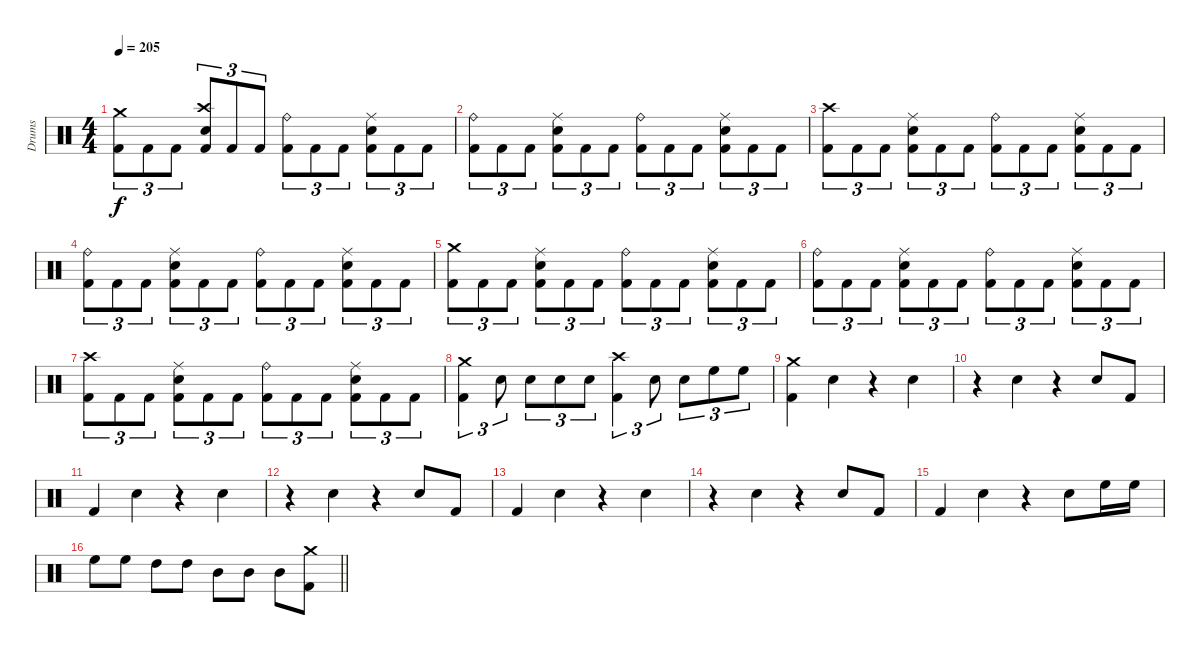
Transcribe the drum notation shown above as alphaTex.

\track ("Drums" "Drums") {instrument percussion}
\staff {score}
\articulation defaults
\ts (4 4)
\tempo 205
\clef neutral
\ks c
("Crash medium (hit)" "Kick (hit) 2").8{tu (3 2) dy f} "Kick (hit) 2".8{tu (3 2)} "Kick (hit) 2".8{tu (3 2)} ("Crash high (hit)" "Electric Snare (hit)" "Kick (hit) 2").8{tu (3 2)} "Kick (hit) 2".8{tu (3 2)} "Kick (hit) 2".8{tu (3 2)} ("Ride (bell)" "Kick (hit) 2").8{tu (3 2)} "Kick (hit) 2".8{tu (3 2)} "Kick (hit) 2".8{tu (3 2)} ("Ride (middle)" "Electric Snare (hit)" "Kick (hit) 2").8{tu (3 2)} "Kick (hit) 2".8{tu (3 2)} "Kick (hit) 2".8{tu (3 2)} |
("Ride (bell)" "Kick (hit) 2").8{tu (3 2)} "Kick (hit) 2".8{tu (3 2)} "Kick (hit) 2".8{tu (3 2)} ("Ride (middle)" "Electric Snare (hit)" "Kick (hit) 2").8{tu (3 2)} "Kick (hit) 2".8{tu (3 2)} "Kick (hit) 2".8{tu (3 2)} ("Ride (bell)" "Kick (hit) 2").8{tu (3 2)} "Kick (hit) 2".8{tu (3 2)} "Kick (hit) 2".8{tu (3 2)} ("Ride (middle)" "Electric Snare (hit)" "Kick (hit) 2").8{tu (3 2)} "Kick (hit) 2".8{tu (3 2)} "Kick (hit) 2".8{tu (3 2)} |
("Crash high (hit)" "Kick (hit) 2").8{tu (3 2)} "Kick (hit) 2".8{tu (3 2)} "Kick (hit) 2".8{tu (3 2)} ("Ride (middle)" "Electric Snare (hit)" "Kick (hit) 2").8{tu (3 2)} "Kick (hit) 2".8{tu (3 2)} "Kick (hit) 2".8{tu (3 2)} ("Ride (bell)" "Kick (hit) 2").8{tu (3 2)} "Kick (hit) 2".8{tu (3 2)} "Kick (hit) 2".8{tu (3 2)} ("Ride (middle)" "Electric Snare (hit)" "Kick (hit) 2").8{tu (3 2)} "Kick (hit) 2".8{tu (3 2)} "Kick (hit) 2".8{tu (3 2)} |
("Ride (bell)" "Kick (hit) 2").8{tu (3 2)} "Kick (hit) 2".8{tu (3 2)} "Kick (hit) 2".8{tu (3 2)} ("Ride (middle)" "Electric Snare (hit)" "Kick (hit) 2").8{tu (3 2)} "Kick (hit) 2".8{tu (3 2)} "Kick (hit) 2".8{tu (3 2)} ("Ride (bell)" "Kick (hit) 2").8{tu (3 2)} "Kick (hit) 2".8{tu (3 2)} "Kick (hit) 2".8{tu (3 2)} ("Ride (middle)" "Electric Snare (hit)" "Kick (hit) 2").8{tu (3 2)} "Kick (hit) 2".8{tu (3 2)} "Kick (hit) 2".8{tu (3 2)} |
("Crash medium (hit)" "Kick (hit) 2").8{tu (3 2)} "Kick (hit) 2".8{tu (3 2)} "Kick (hit) 2".8{tu (3 2)} ("Ride (middle)" "Electric Snare (hit)" "Kick (hit) 2").8{tu (3 2)} "Kick (hit) 2".8{tu (3 2)} "Kick (hit) 2".8{tu (3 2)} ("Ride (bell)" "Kick (hit) 2").8{tu (3 2)} "Kick (hit) 2".8{tu (3 2)} "Kick (hit) 2".8{tu (3 2)} ("Ride (middle)" "Electric Snare (hit)" "Kick (hit) 2").8{tu (3 2)} "Kick (hit) 2".8{tu (3 2)} "Kick (hit) 2".8{tu (3 2)} |
("Ride (bell)" "Kick (hit) 2").8{tu (3 2)} "Kick (hit) 2".8{tu (3 2)} "Kick (hit) 2".8{tu (3 2)} ("Ride (middle)" "Electric Snare (hit)" "Kick (hit) 2").8{tu (3 2)} "Kick (hit) 2".8{tu (3 2)} "Kick (hit) 2".8{tu (3 2)} ("Ride (bell)" "Kick (hit) 2").8{tu (3 2)} "Kick (hit) 2".8{tu (3 2)} "Kick (hit) 2".8{tu (3 2)} ("Ride (middle)" "Electric Snare (hit)" "Kick (hit) 2").8{tu (3 2)} "Kick (hit) 2".8{tu (3 2)} "Kick (hit) 2".8{tu (3 2)} |
("Crash high (hit)" "Kick (hit) 2").8{tu (3 2)} "Kick (hit) 2".8{tu (3 2)} "Kick (hit) 2".8{tu (3 2)} ("Ride (middle)" "Electric Snare (hit)" "Kick (hit) 2").8{tu (3 2)} "Kick (hit) 2".8{tu (3 2)} "Kick (hit) 2".8{tu (3 2)} ("Ride (bell)" "Kick (hit) 2").8{tu (3 2)} "Kick (hit) 2".8{tu (3 2)} "Kick (hit) 2".8{tu (3 2)} ("Ride (middle)" "Electric Snare (hit)" "Kick (hit) 2").8{tu (3 2)} "Kick (hit) 2".8{tu (3 2)} "Kick (hit) 2".8{tu (3 2)} |
("Crash medium (hit)" "Kick (hit) 2").4{tu (3 2)} "Electric Snare (hit)".8{tu (3 2)} "Electric Snare (hit)".8{tu (3 2)} "Electric Snare (hit)".8{tu (3 2)} "Electric Snare (hit)".8{tu (3 2)} ("Crash high (hit)" "Kick (hit) 2").4{tu (3 2)} "Electric Snare (hit)".8{tu (3 2)} "Electric Snare (hit)".8{tu (3 2)} "High Floor Tom (hit)".8{tu (3 2)} "High Floor Tom (hit)".8{tu (3 2)} |
("Crash medium (hit)" "Kick (hit) 2").4 "Electric Snare (hit)".4 r.4 "Electric Snare (hit)".4 |
r.4 "Electric Snare (hit)".4 r.4 "Electric Snare (hit)".8 "Kick (hit) 2".8 |
"Kick (hit) 2".4 "Electric Snare (hit)".4 r.4 "Electric Snare (hit)".4 |
r.4 "Electric Snare (hit)".4 r.4 "Electric Snare (hit)".8 "Kick (hit) 2".8 |
"Kick (hit) 2".4 "Electric Snare (hit)".4 r.4 "Electric Snare (hit)".4 |
r.4 "Electric Snare (hit)".4 r.4 "Electric Snare (hit)".8 "Kick (hit) 2".8 |
"Kick (hit) 2".4 "Electric Snare (hit)".4 r.4 "Electric Snare (hit)".8 "High Floor Tom (hit)".16 "High Floor Tom (hit)".16 |
\barLineRight lightlight "High Floor Tom (hit)".8 "High Floor Tom (hit)".8 "High Tom (hit)".8 "High Tom (hit)".8 "Mid Tom (hit)".8 "Mid Tom (hit)".8 "Mid Tom (hit)".8
("Crash medium (hit)" "Kick (hit) 2").8
